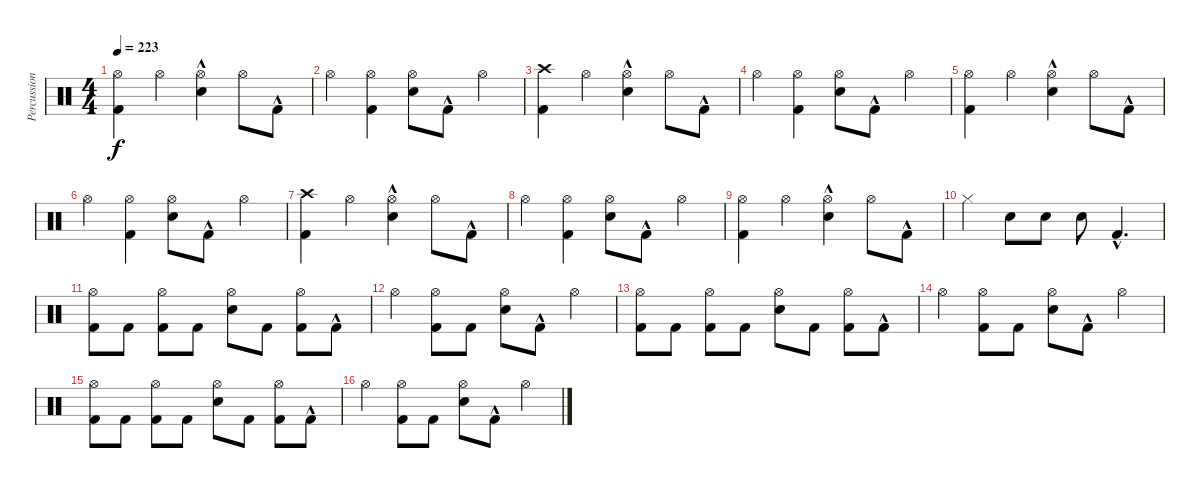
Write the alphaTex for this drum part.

\track ("Percussion" "Percussion") {instrument percussion}
\staff {score}
\articulation defaults
\ts (4 4)
\tempo 223
\clef neutral
\ks c
("Hi-Hat (open)" "Kick (hit) 2").4{dy f} "Hi-Hat (open)".4 ("Hi-Hat (open)" "Electric Snare (hit)"{hac}).4 "Hi-Hat (open)".8 "Kick (hit) 2"{hac}.8 |
"Hi-Hat (open)".4 ("Hi-Hat (open)" "Kick (hit) 2").4 ("Hi-Hat (open)" "Electric Snare (hit)").8 "Kick (hit) 2"{hac}.8 "Hi-Hat (open)".4 |
("Crash high (hit)" "Kick (hit) 2").4 "Hi-Hat (open)".4 ("Hi-Hat (open)" "Electric Snare (hit)"{hac}).4 "Hi-Hat (open)".8 "Kick (hit) 2"{hac}.8 |
"Hi-Hat (open)".4 ("Hi-Hat (open)" "Kick (hit) 2").4 ("Hi-Hat (open)" "Electric Snare (hit)").8 "Kick (hit) 2"{hac}.8 "Hi-Hat (open)".4 |
("Hi-Hat (open)" "Kick (hit) 2").4 "Hi-Hat (open)".4 ("Hi-Hat (open)" "Electric Snare (hit)"{hac}).4 "Hi-Hat (open)".8 "Kick (hit) 2"{hac}.8 |
"Hi-Hat (open)".4 ("Hi-Hat (open)" "Kick (hit) 2").4 ("Hi-Hat (open)" "Electric Snare (hit)").8 "Kick (hit) 2"{hac}.8 "Hi-Hat (open)".4 |
("Crash high (hit)" "Kick (hit) 2").4 "Hi-Hat (open)".4 ("Hi-Hat (open)" "Electric Snare (hit)"{hac}).4 "Hi-Hat (open)".8 "Kick (hit) 2"{hac}.8 |
"Hi-Hat (open)".4 ("Hi-Hat (open)" "Kick (hit) 2").4 ("Hi-Hat (open)" "Electric Snare (hit)").8 "Kick (hit) 2"{hac}.8 "Hi-Hat (open)".4 |
("Hi-Hat (open)" "Kick (hit) 2").4 "Hi-Hat (open)".4 ("Hi-Hat (open)" "Electric Snare (hit)"{hac}).4 "Hi-Hat (open)".8 "Kick (hit) 2"{hac}.8 |
"Hi-Hat (closed)".4 "Electric Snare (hit)".8 "Electric Snare (hit)".8 "Electric Snare (hit)".8 "Kick (hit) 2"{hac}.4{d} |
("Kick (hit) 2" "Hi-Hat (open)").8 "Kick (hit) 2".8 ("Hi-Hat (open)" "Kick (hit) 2").8 "Kick (hit) 2".8 ("Hi-Hat (open)" "Electric Snare (hit)").8 "Kick (hit) 2".8 ("Hi-Hat (open)" "Kick (hit) 2").8 "Kick (hit) 2"{hac}.8 |
"Hi-Hat (open)".4 ("Hi-Hat (open)" "Kick (hit) 2").8 "Kick (hit) 2".8 ("Hi-Hat (open)" "Electric Snare (hit)").8 "Kick (hit) 2"{hac}.8 "Hi-Hat (open)".4 |
("Hi-Hat (open)" "Kick (hit) 2").8 "Kick (hit) 2".8 ("Hi-Hat (open)" "Kick (hit) 2").8 "Kick (hit) 2".8 ("Hi-Hat (open)" "Electric Snare (hit)").8 "Kick (hit) 2".8 ("Hi-Hat (open)" "Kick (hit) 2").8 "Kick (hit) 2"{hac}.8 |
"Hi-Hat (open)".4 ("Hi-Hat (open)" "Kick (hit) 2").8 "Kick (hit) 2".8 ("Hi-Hat (open)" "Electric Snare (hit)").8 "Kick (hit) 2"{hac}.8 "Hi-Hat (open)".4 |
("Kick (hit) 2" "Hi-Hat (open)").8 "Kick (hit) 2".8 ("Hi-Hat (open)" "Kick (hit) 2").8 "Kick (hit) 2".8 ("Hi-Hat (open)" "Electric Snare (hit)").8 "Kick (hit) 2".8 ("Hi-Hat (open)" "Kick (hit) 2").8 "Kick (hit) 2"{hac}.8 |
"Hi-Hat (open)".4 ("Hi-Hat (open)" "Kick (hit) 2").8 "Kick (hit) 2".8 ("Hi-Hat (open)" "Electric Snare (hit)").8 "Kick (hit) 2"{hac}.8 "Hi-Hat (open)".4
